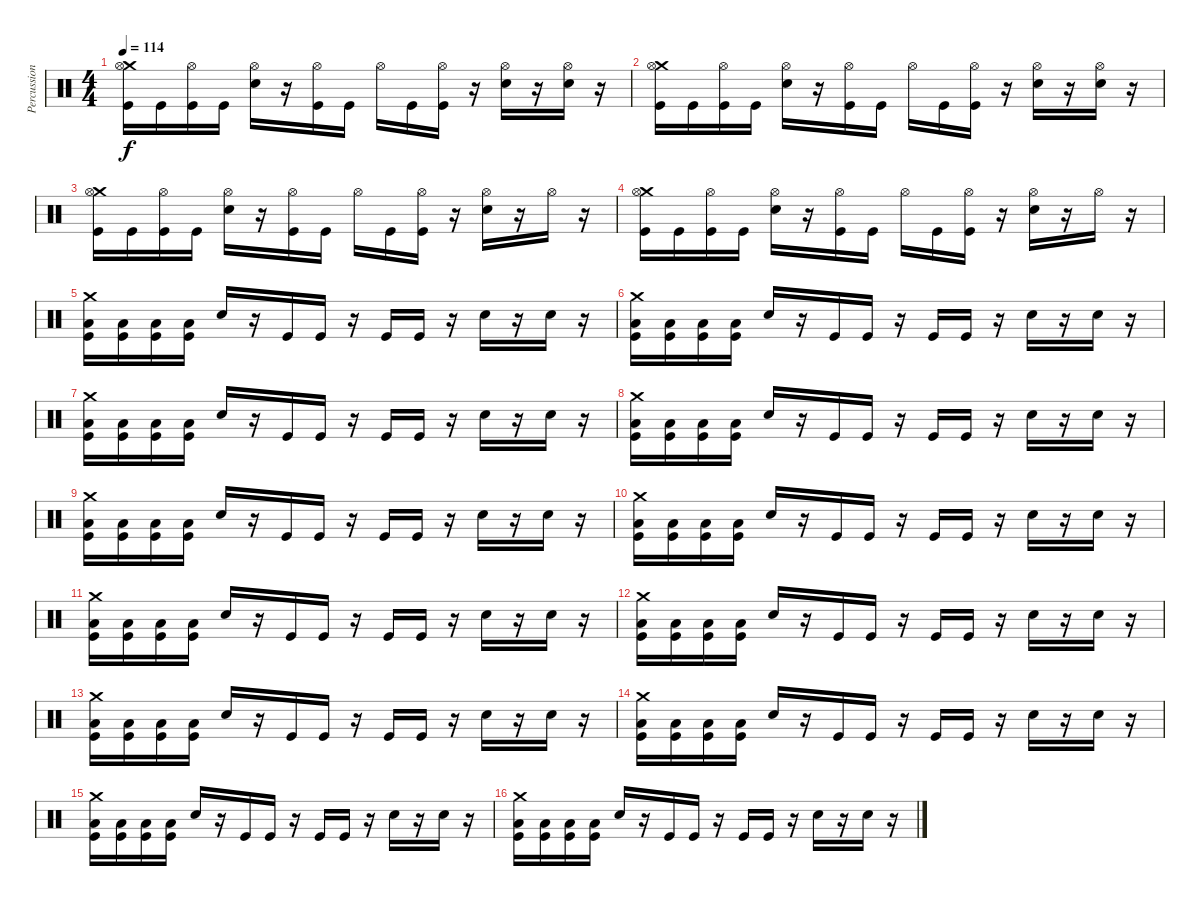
\track ("Percussion" "Percussion") {instrument percussion}
\staff {score}
\articulation defaults
\ts (4 4)
\tempo 114
\clef neutral
\ks c
("Crash medium (hit)" "Hi-Hat (open)" "Kick (hit)").16{dy f} "Kick (hit)".16 ("Hi-Hat (open)" "Kick (hit)").16 "Kick (hit)".16 ("Hi-Hat (open)" "Electric Snare (hit)").16 r.16 ("Hi-Hat (open)" "Kick (hit)").16 "Kick (hit)".16 "Hi-Hat (open)".16 "Kick (hit)".16 ("Hi-Hat (open)" "Kick (hit)").16 r.16 ("Hi-Hat (open)" "Electric Snare (hit)").16 r.16 ("Hi-Hat (open)" "Electric Snare (hit)").16 r.16 |
("Crash medium (hit)" "Hi-Hat (open)" "Kick (hit)").16 "Kick (hit)".16 ("Hi-Hat (open)" "Kick (hit)").16 "Kick (hit)".16 ("Hi-Hat (open)" "Electric Snare (hit)").16 r.16 ("Hi-Hat (open)" "Kick (hit)").16 "Kick (hit)".16 "Hi-Hat (open)".16 "Kick (hit)".16 ("Hi-Hat (open)" "Kick (hit)").16 r.16 ("Hi-Hat (open)" "Electric Snare (hit)").16 r.16 ("Hi-Hat (open)" "Electric Snare (hit)").16 r.16 |
("Crash medium (hit)" "Hi-Hat (open)" "Kick (hit)").16 "Kick (hit)".16 ("Hi-Hat (open)" "Kick (hit)").16 "Kick (hit)".16 ("Hi-Hat (open)" "Electric Snare (hit)").16 r.16 ("Hi-Hat (open)" "Kick (hit)").16 "Kick (hit)".16 "Hi-Hat (open)".16 "Kick (hit)".16 ("Hi-Hat (open)" "Kick (hit)").16 r.16 ("Hi-Hat (open)" "Electric Snare (hit)").16 r.16 "Hi-Hat (open)".16 r.16 |
("Crash medium (hit)" "Hi-Hat (open)" "Kick (hit)").16 "Kick (hit)".16 ("Hi-Hat (open)" "Kick (hit)").16 "Kick (hit)".16 ("Hi-Hat (open)" "Electric Snare (hit)").16 r.16 ("Hi-Hat (open)" "Kick (hit)").16 "Kick (hit)".16 "Hi-Hat (open)".16 "Kick (hit)".16 ("Hi-Hat (open)" "Kick (hit)").16 r.16 ("Hi-Hat (open)" "Electric Snare (hit)").16 r.16 "Hi-Hat (open)".16 r.16 |
("Crash medium (hit)" "Low Floor Tom (hit)" "Kick (hit)").16 ("Low Floor Tom (hit)" "Kick (hit)").16 ("Low Floor Tom (hit)" "Kick (hit)").16 ("Low Floor Tom (hit)" "Kick (hit)").16 "Electric Snare (hit)".16 r.16 "Kick (hit)".16 "Kick (hit)".16 r.16 "Kick (hit)".16 "Kick (hit)".16 r.16 "Electric Snare (hit)".16 r.16 "Electric Snare (hit)".16 r.16 |
("Crash medium (hit)" "Low Floor Tom (hit)" "Kick (hit)").16 ("Low Floor Tom (hit)" "Kick (hit)").16 ("Low Floor Tom (hit)" "Kick (hit)").16 ("Low Floor Tom (hit)" "Kick (hit)").16 "Electric Snare (hit)".16 r.16 "Kick (hit)".16 "Kick (hit)".16 r.16 "Kick (hit)".16 "Kick (hit)".16 r.16 "Electric Snare (hit)".16 r.16 "Electric Snare (hit)".16 r.16 |
("Crash medium (hit)" "Low Floor Tom (hit)" "Kick (hit)").16 ("Low Floor Tom (hit)" "Kick (hit)").16 ("Low Floor Tom (hit)" "Kick (hit)").16 ("Low Floor Tom (hit)" "Kick (hit)").16 "Electric Snare (hit)".16 r.16 "Kick (hit)".16 "Kick (hit)".16 r.16 "Kick (hit)".16 "Kick (hit)".16 r.16 "Electric Snare (hit)".16 r.16 "Electric Snare (hit)".16 r.16 |
("Crash medium (hit)" "Low Floor Tom (hit)" "Kick (hit)").16 ("Low Floor Tom (hit)" "Kick (hit)").16 ("Low Floor Tom (hit)" "Kick (hit)").16 ("Low Floor Tom (hit)" "Kick (hit)").16 "Electric Snare (hit)".16 r.16 "Kick (hit)".16 "Kick (hit)".16 r.16 "Kick (hit)".16 "Kick (hit)".16 r.16 "Electric Snare (hit)".16 r.16 "Electric Snare (hit)".16 r.16 |
("Crash medium (hit)" "Low Floor Tom (hit)" "Kick (hit)").16 ("Low Floor Tom (hit)" "Kick (hit)").16 ("Low Floor Tom (hit)" "Kick (hit)").16 ("Low Floor Tom (hit)" "Kick (hit)").16 "Electric Snare (hit)".16 r.16 "Kick (hit)".16 "Kick (hit)".16 r.16 "Kick (hit)".16 "Kick (hit)".16 r.16 "Electric Snare (hit)".16 r.16 "Electric Snare (hit)".16 r.16 |
("Crash medium (hit)" "Low Floor Tom (hit)" "Kick (hit)").16 ("Low Floor Tom (hit)" "Kick (hit)").16 ("Low Floor Tom (hit)" "Kick (hit)").16 ("Low Floor Tom (hit)" "Kick (hit)").16 "Electric Snare (hit)".16 r.16 "Kick (hit)".16 "Kick (hit)".16 r.16 "Kick (hit)".16 "Kick (hit)".16 r.16 "Electric Snare (hit)".16 r.16 "Electric Snare (hit)".16 r.16 |
("Crash medium (hit)" "Low Floor Tom (hit)" "Kick (hit)").16 ("Low Floor Tom (hit)" "Kick (hit)").16 ("Low Floor Tom (hit)" "Kick (hit)").16 ("Low Floor Tom (hit)" "Kick (hit)").16 "Electric Snare (hit)".16 r.16 "Kick (hit)".16 "Kick (hit)".16 r.16 "Kick (hit)".16 "Kick (hit)".16 r.16 "Electric Snare (hit)".16 r.16 "Electric Snare (hit)".16 r.16 |
("Crash medium (hit)" "Low Floor Tom (hit)" "Kick (hit)").16 ("Low Floor Tom (hit)" "Kick (hit)").16 ("Low Floor Tom (hit)" "Kick (hit)").16 ("Low Floor Tom (hit)" "Kick (hit)").16 "Electric Snare (hit)".16 r.16 "Kick (hit)".16 "Kick (hit)".16 r.16 "Kick (hit)".16 "Kick (hit)".16 r.16 "Electric Snare (hit)".16 r.16 "Electric Snare (hit)".16 r.16 |
("Crash medium (hit)" "Low Floor Tom (hit)" "Kick (hit)").16 ("Low Floor Tom (hit)" "Kick (hit)").16 ("Low Floor Tom (hit)" "Kick (hit)").16 ("Low Floor Tom (hit)" "Kick (hit)").16 "Electric Snare (hit)".16 r.16 "Kick (hit)".16 "Kick (hit)".16 r.16 "Kick (hit)".16 "Kick (hit)".16 r.16 "Electric Snare (hit)".16 r.16 "Electric Snare (hit)".16 r.16 |
("Crash medium (hit)" "Low Floor Tom (hit)" "Kick (hit)").16 ("Low Floor Tom (hit)" "Kick (hit)").16 ("Low Floor Tom (hit)" "Kick (hit)").16 ("Low Floor Tom (hit)" "Kick (hit)").16 "Electric Snare (hit)".16 r.16 "Kick (hit)".16 "Kick (hit)".16 r.16 "Kick (hit)".16 "Kick (hit)".16 r.16 "Electric Snare (hit)".16 r.16 "Electric Snare (hit)".16 r.16 |
("Crash medium (hit)" "Low Floor Tom (hit)" "Kick (hit)").16 ("Low Floor Tom (hit)" "Kick (hit)").16 ("Low Floor Tom (hit)" "Kick (hit)").16 ("Low Floor Tom (hit)" "Kick (hit)").16 "Electric Snare (hit)".16 r.16 "Kick (hit)".16 "Kick (hit)".16 r.16 "Kick (hit)".16 "Kick (hit)".16 r.16 "Electric Snare (hit)".16 r.16 "Electric Snare (hit)".16 r.16 |
("Crash medium (hit)" "Low Floor Tom (hit)" "Kick (hit)").16 ("Low Floor Tom (hit)" "Kick (hit)").16 ("Low Floor Tom (hit)" "Kick (hit)").16 ("Low Floor Tom (hit)" "Kick (hit)").16 "Electric Snare (hit)".16 r.16 "Kick (hit)".16 "Kick (hit)".16 r.16 "Kick (hit)".16 "Kick (hit)".16 r.16 "Electric Snare (hit)".16 r.16 "Electric Snare (hit)".16 r.16
